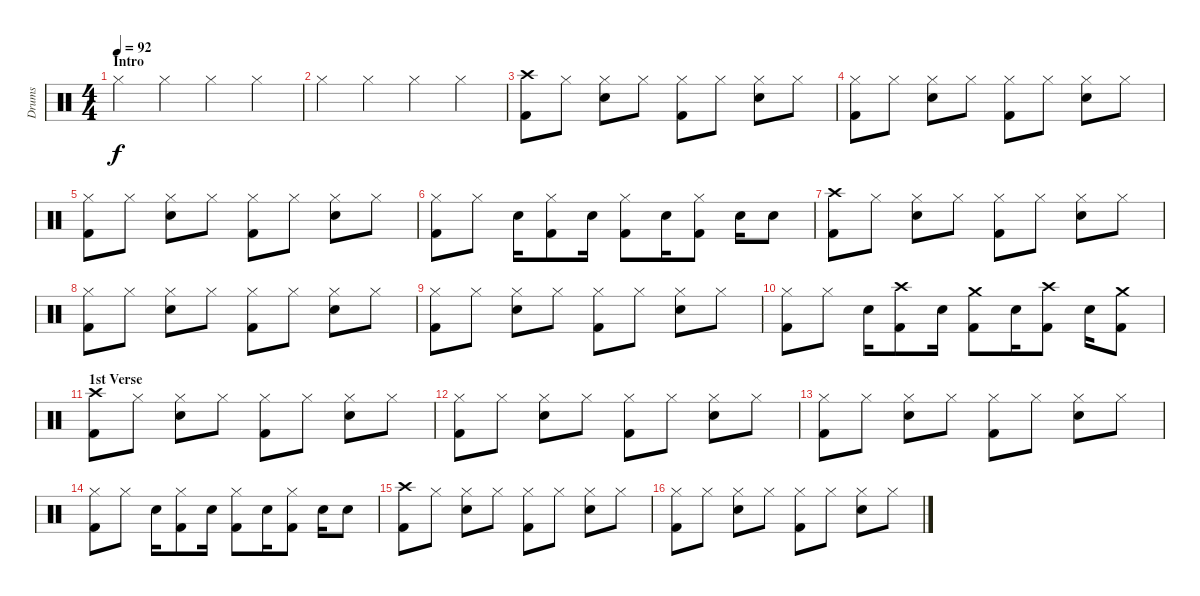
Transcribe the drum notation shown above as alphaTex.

\track ("Drums" "Drums") {instrument percussion}
\staff {score}
\articulation defaults
\ts (4 4)
\section ("" "Intro")
\tempo 92
\clef neutral
\ks c "Hi-Hat (closed)".4{dy f} "Hi-Hat (closed)".4 "Hi-Hat (closed)".4 "Hi-Hat (closed)".4
|
"Hi-Hat (closed)".4 "Hi-Hat (closed)".4 "Hi-Hat (closed)".4 "Hi-Hat (closed)".4 |
("Crash high (hit)" "Kick (hit) 2").8 "Hi-Hat (closed)".8 ("Hi-Hat (closed)" "Snare (hit) 2").8 "Hi-Hat (closed)".8 ("Hi-Hat (closed)" "Kick (hit) 2").8 "Hi-Hat (closed)".8 ("Hi-Hat (closed)" "Snare (hit) 2").8 "Hi-Hat (closed)".8 |
("Hi-Hat (closed)" "Kick (hit) 2").8 "Hi-Hat (closed)".8 ("Hi-Hat (closed)" "Snare (hit) 2").8 "Hi-Hat (closed)".8 ("Hi-Hat (closed)" "Kick (hit) 2").8 "Hi-Hat (closed)".8 ("Hi-Hat (closed)" "Snare (hit) 2").8 "Hi-Hat (closed)".8 |
("Hi-Hat (closed)" "Kick (hit) 2").8 "Hi-Hat (closed)".8 ("Hi-Hat (closed)" "Snare (hit) 2").8 "Hi-Hat (closed)".8 ("Hi-Hat (closed)" "Kick (hit) 2").8 "Hi-Hat (closed)".8 ("Hi-Hat (closed)" "Snare (hit) 2").8 "Hi-Hat (closed)".8 |
("Hi-Hat (closed)" "Kick (hit) 2").8 "Hi-Hat (closed)".8 "Snare (hit) 2".16 ("Hi-Hat (closed)" "Kick (hit) 2").8 "Snare (hit) 2".16 ("Hi-Hat (closed)" "Kick (hit) 2").8 "Snare (hit) 2".16 ("Hi-Hat (closed)" "Kick (hit) 2").8 "Snare (hit) 2".16 "Snare (hit) 2".8 |
("Crash high (hit)" "Kick (hit) 2").8 "Hi-Hat (closed)".8 ("Hi-Hat (closed)" "Snare (hit) 2").8 "Hi-Hat (closed)".8 ("Hi-Hat (closed)" "Kick (hit) 2").8 "Hi-Hat (closed)".8 ("Hi-Hat (closed)" "Snare (hit) 2").8 "Hi-Hat (closed)".8 |
("Hi-Hat (closed)" "Kick (hit) 2").8 "Hi-Hat (closed)".8 ("Hi-Hat (closed)" "Snare (hit) 2").8 "Hi-Hat (closed)".8 ("Hi-Hat (closed)" "Kick (hit) 2").8 "Hi-Hat (closed)".8 ("Hi-Hat (closed)" "Snare (hit) 2").8 "Hi-Hat (closed)".8 |
("Hi-Hat (closed)" "Kick (hit) 2").8 "Hi-Hat (closed)".8 ("Hi-Hat (closed)" "Snare (hit) 2").8 "Hi-Hat (closed)".8 ("Hi-Hat (closed)" "Kick (hit) 2").8 "Hi-Hat (closed)".8 ("Hi-Hat (closed)" "Snare (hit) 2").8 "Hi-Hat (closed)".8 |
("Hi-Hat (closed)" "Kick (hit) 2").8 "Hi-Hat (closed)".8 "Snare (hit) 2".16 ("Crash high (hit)" "Kick (hit) 2").8 "Snare (hit) 2".16 ("Crash medium (hit)" "Kick (hit) 2").8 "Snare (hit) 2".16 ("Crash high (hit)" "Kick (hit) 2").8 "Snare (hit) 2".16 ("Crash medium (hit)" "Kick (hit) 2").8 |
\section ("" "1st Verse")
("Crash high (hit)" "Kick (hit) 2").8 "Hi-Hat (closed)".8 ("Hi-Hat (closed)" "Snare (hit) 2").8 "Hi-Hat (closed)".8 ("Hi-Hat (closed)" "Kick (hit) 2").8 "Hi-Hat (closed)".8 ("Hi-Hat (closed)" "Snare (hit) 2").8 "Hi-Hat (closed)".8 |
("Hi-Hat (closed)" "Kick (hit) 2").8 "Hi-Hat (closed)".8 ("Hi-Hat (closed)" "Snare (hit) 2").8 "Hi-Hat (closed)".8 ("Hi-Hat (closed)" "Kick (hit) 2").8 "Hi-Hat (closed)".8 ("Hi-Hat (closed)" "Snare (hit) 2").8 "Hi-Hat (closed)".8 |
("Hi-Hat (closed)" "Kick (hit) 2").8 "Hi-Hat (closed)".8 ("Hi-Hat (closed)" "Snare (hit) 2").8 "Hi-Hat (closed)".8 ("Hi-Hat (closed)" "Kick (hit) 2").8 "Hi-Hat (closed)".8 ("Hi-Hat (closed)" "Snare (hit) 2").8 "Hi-Hat (closed)".8 |
("Hi-Hat (closed)" "Kick (hit) 2").8 "Hi-Hat (closed)".8 "Snare (hit) 2".16 ("Hi-Hat (closed)" "Kick (hit) 2").8 "Snare (hit) 2".16 ("Hi-Hat (closed)" "Kick (hit) 2").8 "Snare (hit) 2".16 ("Hi-Hat (closed)" "Kick (hit) 2").8 "Snare (hit) 2".16 "Snare (hit) 2".8 |
("Crash high (hit)" "Kick (hit) 2").8 "Hi-Hat (closed)".8 ("Hi-Hat (closed)" "Snare (hit) 2").8 "Hi-Hat (closed)".8 ("Hi-Hat (closed)" "Kick (hit) 2").8 "Hi-Hat (closed)".8 ("Hi-Hat (closed)" "Snare (hit) 2").8 "Hi-Hat (closed)".8 |
("Hi-Hat (closed)" "Kick (hit) 2").8 "Hi-Hat (closed)".8 ("Hi-Hat (closed)" "Snare (hit) 2").8 "Hi-Hat (closed)".8 ("Hi-Hat (closed)" "Kick (hit) 2").8 "Hi-Hat (closed)".8 ("Hi-Hat (closed)" "Snare (hit) 2").8 "Hi-Hat (closed)".8
